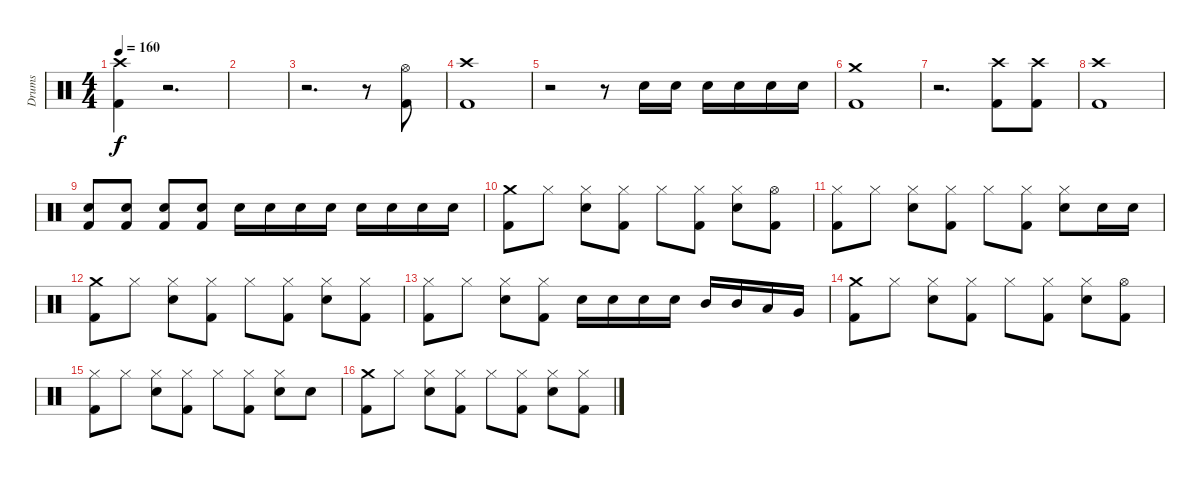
\track ("Drums" "Drums") {instrument percussion}
\staff {score}
\articulation defaults
\ts (4 4)
\tempo 160
\clef neutral
\ks c
("Crash high (hit)" "Kick (hit) 2").4{dy f} r.2{d} |
|
r.2{d} r.8 ("Hi-Hat (open)" "Kick (hit) 2").8 |
("Crash high (hit)" "Kick (hit) 2").1 |
r.2 r.8 "Snare (hit) 2".16 "Snare (hit) 2".16 "Snare (hit) 2".16 "Snare (hit) 2".16 "Snare (hit) 2".16 "Snare (hit) 2".16 |
("Crash medium (hit)" "Kick (hit) 2").1 |
r.2{d} ("Crash high (hit)" "Kick (hit) 2").8 ("Crash high (hit)" "Kick (hit) 2").8 |
("Crash high (hit)" "Kick (hit) 2").1 |
("Kick (hit) 2" "Snare (hit) 2").8 ("Kick (hit) 2" "Snare (hit) 2").8 ("Kick (hit) 2" "Snare (hit) 2").8 ("Kick (hit) 2" "Snare (hit) 2").8 "Snare (hit) 2".16 "Snare (hit) 2".16 "Snare (hit) 2".16 "Snare (hit) 2".16 "Snare (hit) 2".16 "Snare (hit) 2".16 "Snare (hit) 2".16 "Snare (hit) 2".16 |
("Crash medium (hit)" "Kick (hit) 2").8 "Hi-Hat (closed)".8 ("Hi-Hat (closed)" "Snare (hit) 2").8 ("Hi-Hat (closed)" "Kick (hit) 2").8 "Hi-Hat (closed)".8 ("Hi-Hat (closed)" "Kick (hit) 2").8 ("Hi-Hat (closed)" "Snare (hit) 2").8 ("Hi-Hat (open)" "Kick (hit) 2").8 |
("Hi-Hat (closed)" "Kick (hit) 2").8 "Hi-Hat (closed)".8 ("Hi-Hat (closed)" "Snare (hit) 2").8 ("Hi-Hat (closed)" "Kick (hit) 2").8 "Hi-Hat (closed)".8 ("Hi-Hat (closed)" "Kick (hit) 2").8 ("Hi-Hat (closed)" "Snare (hit) 2").8 "Snare (hit) 2".16 "Snare (hit) 2".16 |
("Crash medium (hit)" "Kick (hit) 2").8 "Hi-Hat (closed)".8 ("Hi-Hat (closed)" "Snare (hit) 2").8 ("Hi-Hat (closed)" "Kick (hit) 2").8 "Hi-Hat (closed)".8 ("Hi-Hat (closed)" "Kick (hit) 2").8 ("Hi-Hat (closed)" "Snare (hit) 2").8 ("Hi-Hat (closed)" "Kick (hit) 2").8 |
("Hi-Hat (closed)" "Kick (hit) 2").8 "Hi-Hat (closed)".8 ("Hi-Hat (closed)" "Snare (hit) 2").8 ("Hi-Hat (closed)" "Kick (hit) 2").8 "Snare (hit) 2".16 "Snare (hit) 2".16 "Snare (hit) 2".16 "Snare (hit) 2".16 "Mid Tom (hit)".16 "Mid Tom (hit)".16 "Low Tom (hit)".16 "Very Low Tom (hit)".16 |
("Crash medium (hit)" "Kick (hit) 2").8 "Hi-Hat (closed)".8 ("Hi-Hat (closed)" "Snare (hit) 2").8 ("Hi-Hat (closed)" "Kick (hit) 2").8 "Hi-Hat (closed)".8 ("Hi-Hat (closed)" "Kick (hit) 2").8 ("Hi-Hat (closed)" "Snare (hit) 2").8 ("Hi-Hat (open)" "Kick (hit) 2").8 |
("Hi-Hat (closed)" "Kick (hit) 2").8 "Hi-Hat (closed)".8 ("Hi-Hat (closed)" "Snare (hit) 2").8 ("Hi-Hat (closed)" "Kick (hit) 2").8 "Hi-Hat (closed)".8 ("Hi-Hat (closed)" "Kick (hit) 2").8 ("Hi-Hat (closed)" "Snare (hit) 2").8 "Snare (hit) 2".8 |
("Crash medium (hit)" "Kick (hit) 2").8 "Hi-Hat (closed)".8 ("Hi-Hat (closed)" "Snare (hit) 2").8 ("Hi-Hat (closed)" "Kick (hit) 2").8 "Hi-Hat (closed)".8 ("Hi-Hat (closed)" "Kick (hit) 2").8 ("Hi-Hat (closed)" "Snare (hit) 2").8 ("Hi-Hat (closed)" "Kick (hit) 2").8
